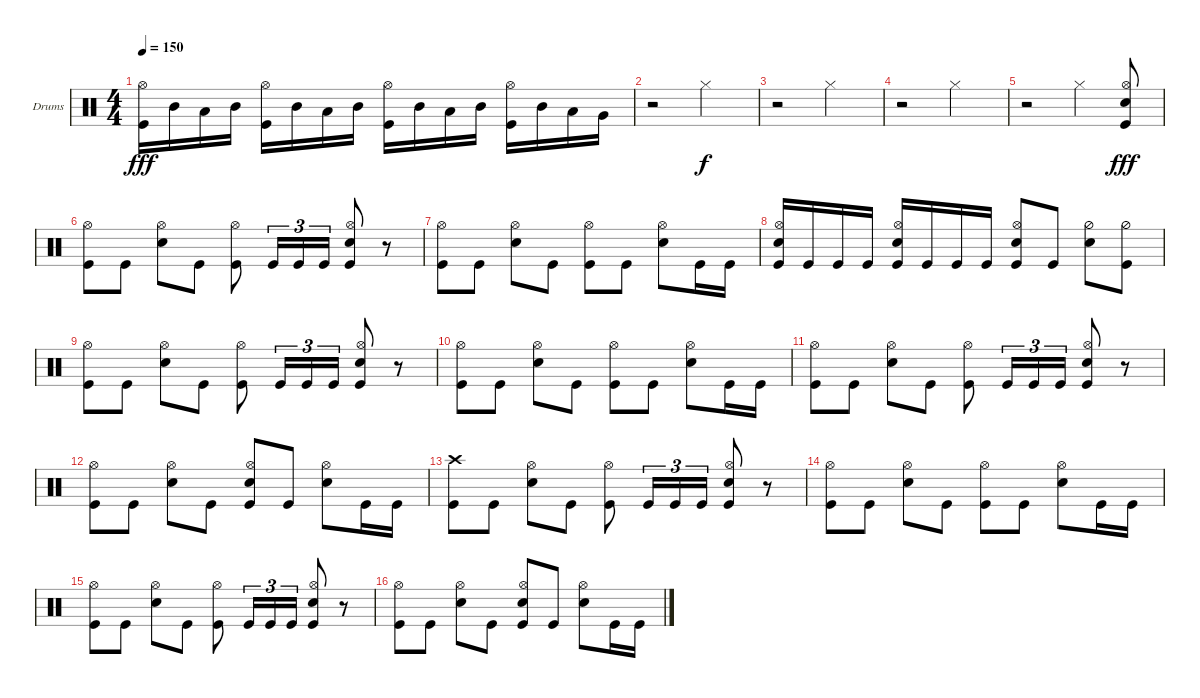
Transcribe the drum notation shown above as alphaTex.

\bracketExtendMode groupsimilarinstruments
\firstSystemTrackNameOrientation horizontal
\otherSystemsTrackNameOrientation horizontal
\track ("Corey" "Drums") {instrument percussion}
\staff {score}
\articulation defaults
\ts (4 4)
\tempo 150
\clef neutral
\ks c
("Kick (hit)" "Hi-Hat (open)").16{dy fff} "Mid Tom (hit)".16 "Low Tom (hit)".16 "Mid Tom (hit)".16 ("Kick (hit)" "Hi-Hat (open)").16 "Mid Tom (hit)".16 "Low Tom (hit)".16 "Mid Tom (hit)".16 ("Kick (hit)" "Hi-Hat (open)").16 "Mid Tom (hit)".16 "Low Tom (hit)".16 "Mid Tom (hit)".16 ("Kick (hit)" "Hi-Hat (open)").16 "Mid Tom (hit)".16 "Low Tom (hit)".16 "Very Low Tom (hit)".16 |
r.2 "Hi-Hat (closed)".2{dy f} |
r.2 "Hi-Hat (closed)".2 |
r.2 "Hi-Hat (closed)".2 |
r.2 "Hi-Hat (closed)".4 ("Snare (hit) 2" "Hi-Hat (open)" "Kick (hit)").8{dy fff} |
("Kick (hit)" "Hi-Hat (open)").8 "Kick (hit)".8 ("Snare (hit) 2" "Hi-Hat (open)").8 "Kick (hit)".8 ("Kick (hit)" "Hi-Hat (open)").8 "Kick (hit)".16{tu (3 2)} "Kick (hit)".16{tu (3 2)} "Kick (hit)".16{tu (3 2)} ("Kick (hit)" "Snare (hit) 2" "Hi-Hat (open)").8 r.8 |
("Kick (hit)" "Hi-Hat (open)").8 "Kick (hit)".8 ("Snare (hit) 2" "Hi-Hat (open)").8 "Kick (hit)".8 ("Kick (hit)" "Hi-Hat (open)").8 "Kick (hit)".8 ("Snare (hit) 2" "Hi-Hat (open)").8 "Kick (hit)".16 "Kick (hit)".16 |
("Kick (hit)" "Snare (hit) 2" "Hi-Hat (open)").16 "Kick (hit)".16 "Kick (hit)".16 "Kick (hit)".16 ("Kick (hit)" "Snare (hit) 2" "Hi-Hat (open)").16 "Kick (hit)".16 "Kick (hit)".16 "Kick (hit)".16 ("Kick (hit)" "Snare (hit) 2" "Hi-Hat (open)").8 "Kick (hit)".8 ("Snare (hit) 2" "Hi-Hat (half)").8 ("Kick (hit)" "Hi-Hat (half)").8 |
("Kick (hit)" "Hi-Hat (open)").8 "Kick (hit)".8 ("Snare (hit) 2" "Hi-Hat (open)").8 "Kick (hit)".8 ("Kick (hit)" "Hi-Hat (open)").8 "Kick (hit)".16{tu (3 2)} "Kick (hit)".16{tu (3 2)} "Kick (hit)".16{tu (3 2)} ("Kick (hit)" "Snare (hit) 2" "Hi-Hat (open)").8 r.8 |
("Kick (hit)" "Hi-Hat (open)").8 "Kick (hit)".8 ("Snare (hit) 2" "Hi-Hat (open)").8 "Kick (hit)".8 ("Kick (hit)" "Hi-Hat (open)").8 "Kick (hit)".8 ("Snare (hit) 2" "Hi-Hat (open)").8 "Kick (hit)".16 "Kick (hit)".16 |
("Kick (hit)" "Hi-Hat (open)").8 "Kick (hit)".8 ("Snare (hit) 2" "Hi-Hat (open)").8 "Kick (hit)".8 ("Kick (hit)" "Hi-Hat (open)").8 "Kick (hit)".16{tu (3 2)} "Kick (hit)".16{tu (3 2)} "Kick (hit)".16{tu (3 2)} ("Kick (hit)" "Snare (hit) 2" "Hi-Hat (open)").8 r.8 |
("Kick (hit)" "Hi-Hat (open)").8 "Kick (hit)".8 ("Snare (hit) 2" "Hi-Hat (open)").8 "Kick (hit)".8 ("Kick (hit)" "Hi-Hat (open)" "Snare (hit) 2").8 "Kick (hit)".8 ("Snare (hit) 2" "Hi-Hat (open)").8 "Kick (hit)".16 "Kick (hit)".16 |
("Kick (hit)" "Crash high (hit)").8 "Kick (hit)".8 ("Snare (hit) 2" "Hi-Hat (open)").8 "Kick (hit)".8 ("Kick (hit)" "Hi-Hat (open)").8 "Kick (hit)".16{tu (3 2)} "Kick (hit)".16{tu (3 2)} "Kick (hit)".16{tu (3 2)} ("Kick (hit)" "Snare (hit) 2" "Hi-Hat (open)").8 r.8 |
("Kick (hit)" "Hi-Hat (open)").8 "Kick (hit)".8 ("Snare (hit) 2" "Hi-Hat (open)").8 "Kick (hit)".8 ("Kick (hit)" "Hi-Hat (open)").8 "Kick (hit)".8 ("Snare (hit) 2" "Hi-Hat (open)").8 "Kick (hit)".16 "Kick (hit)".16 |
("Kick (hit)" "Hi-Hat (open)").8 "Kick (hit)".8 ("Snare (hit) 2" "Hi-Hat (open)").8 "Kick (hit)".8 ("Kick (hit)" "Hi-Hat (open)").8 "Kick (hit)".16{tu (3 2)} "Kick (hit)".16{tu (3 2)} "Kick (hit)".16{tu (3 2)} ("Kick (hit)" "Snare (hit) 2" "Hi-Hat (open)").8 r.8 |
("Kick (hit)" "Hi-Hat (open)").8 "Kick (hit)".8 ("Snare (hit) 2" "Hi-Hat (open)").8 "Kick (hit)".8 ("Kick (hit)" "Hi-Hat (open)" "Snare (hit) 2").8 "Kick (hit)".8 ("Snare (hit) 2" "Hi-Hat (open)").8 "Kick (hit)".16 "Kick (hit)".16
